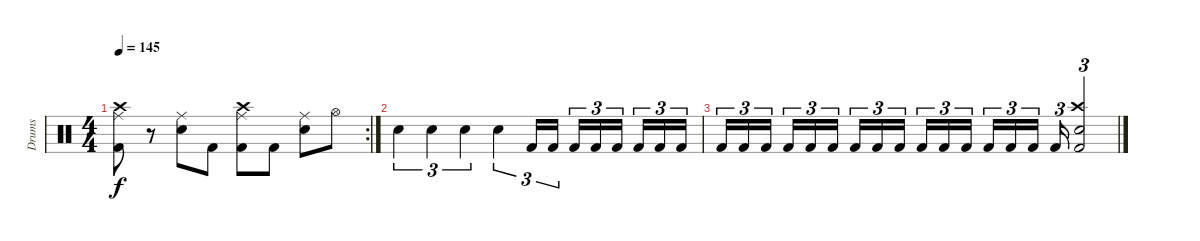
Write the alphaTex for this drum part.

\track ("Drums" "Drums") {instrument percussion}
\staff {score}
\articulation defaults
\rc 2
\ts (4 4)
\tempo 145
\clef neutral
\ks c
("Ride (middle)" "Kick (hit) 2" "Crash high (hit)").8{dy f} r.8 ("Ride (middle)" "Electric Snare (hit)").8 "Kick (hit) 2".8 ("Ride (middle)" "Kick (hit) 2" "Crash high (hit)").8 "Kick (hit) 2".8 ("Ride (middle)" "Electric Snare (hit)").8 "Hi-Hat (open)".8 |
"Electric Snare (hit)".4{tu (3 2)} "Electric Snare (hit)".4{tu (3 2)} "Electric Snare (hit)".4{tu (3 2)} "Electric Snare (hit)".4{tu (3 2)} "Kick (hit) 2".16{tu (3 2)} "Kick (hit) 2".16{tu (3 2)} "Kick (hit) 2".16{tu (3 2)} "Kick (hit) 2".16{tu (3 2)} "Kick (hit) 2".16{tu (3 2)} "Kick (hit) 2".16{tu (3 2)} "Kick (hit) 2".16{tu (3 2)} "Kick (hit) 2".16{tu (3 2)} |
"Kick (hit) 2".16{tu (3 2)} "Kick (hit) 2".16{tu (3 2)} "Kick (hit) 2".16{tu (3 2)} "Kick (hit) 2".16{tu (3 2)} "Kick (hit) 2".16{tu (3 2)} "Kick (hit) 2".16{tu (3 2)} "Kick (hit) 2".16{tu (3 2)} "Kick (hit) 2".16{tu (3 2)} "Kick (hit) 2".16{tu (3 2)} "Kick (hit) 2".16{tu (3 2)} "Kick (hit) 2".16{tu (3 2)} "Kick (hit) 2".16{tu (3 2)} "Kick (hit) 2".16{tu (3 2)} "Kick (hit) 2".16{tu (3 2)} "Kick (hit) 2".16{tu (3 2)} "Kick (hit) 2".16{tu (3 2)} ("Crash high (hit)" "Electric Snare (hit)" "Kick (hit) 2").2{tu (3 2)}
